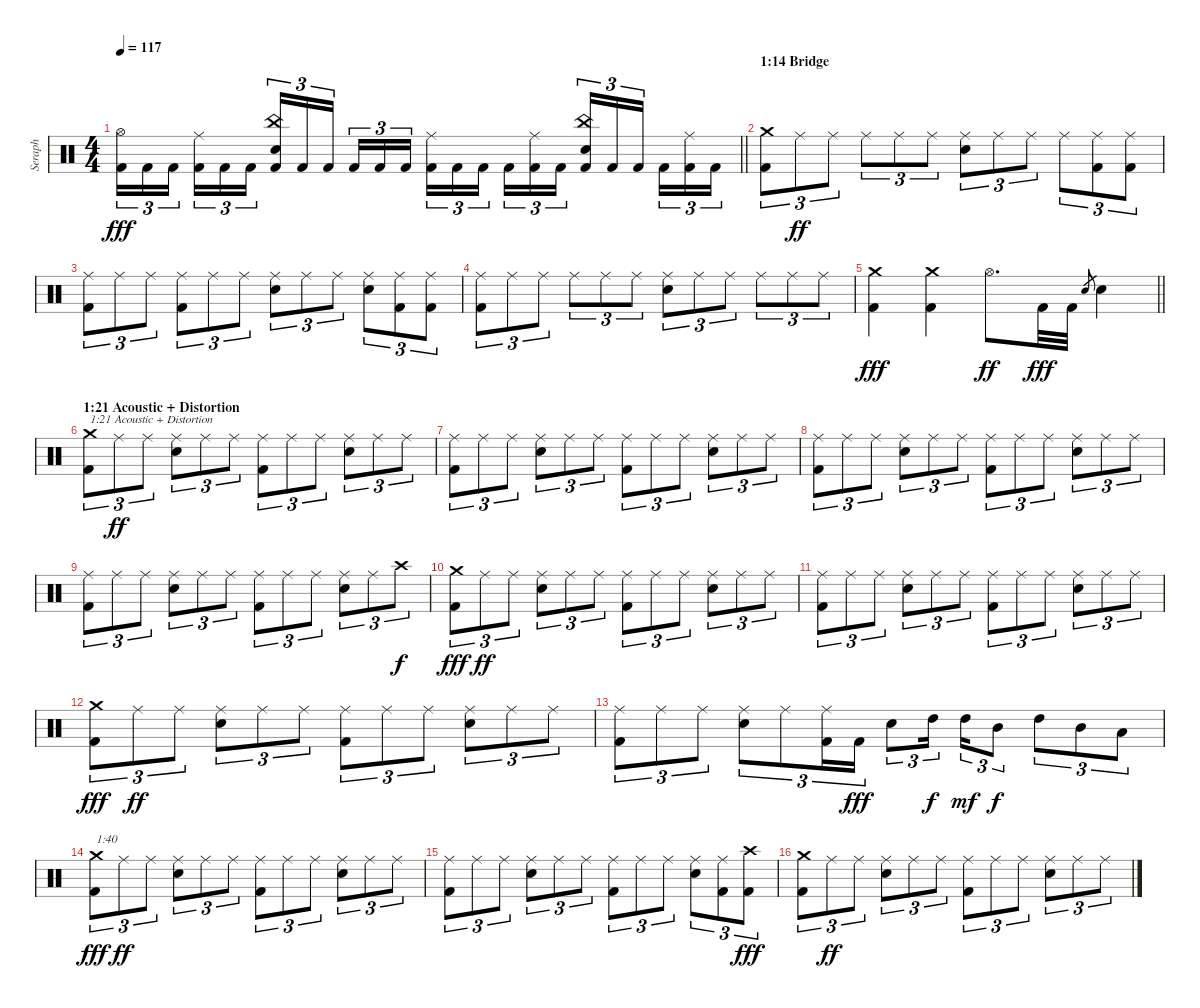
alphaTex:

\track ("Seraph" "Seraph") {instrument percussion}
\staff {score}
\articulation defaults
\ts (4 4)
\tempo 117
\clef neutral
\barLineRight lightlight
\ks c
("Hi-Hat (open)" "Kick (hit) 2").16{tu (3 2) dy fff} "Kick (hit) 2".16{tu (3 2)} "Kick (hit) 2".16{tu (3 2) beam splitsecondary} ("Ride (middle)" "Kick (hit) 2").16{tu (3 2)} "Kick (hit) 2".16{tu (3 2)} "Kick (hit) 2".16{tu (3 2)} ("China (hit)" "Electric Snare (hit)" "Kick (hit) 2").16{tu (3 2)} "Kick (hit) 2".16{tu (3 2)} "Kick (hit) 2".16{tu (3 2) beam splitsecondary} "Kick (hit) 2".16{tu (3 2)} "Kick (hit) 2".16{tu (3 2)} "Kick (hit) 2".16{tu (3 2)} ("Ride (middle)" "Kick (hit) 2").16{tu (3 2)} "Kick (hit) 2".16{tu (3 2)} "Kick (hit) 2".16{tu (3 2) beam splitsecondary} "Kick (hit) 2".16{tu (3 2)} ("Ride (middle)" "Kick (hit) 2").16{tu (3 2)} "Kick (hit) 2".16{tu (3 2)} ("China (hit)" "Electric Snare (hit)" "Kick (hit) 2").16{tu (3 2)} "Kick (hit) 2".16{tu (3 2)} "Kick (hit) 2".16{tu (3 2) beam splitsecondary} "Kick (hit) 2".16{tu (3 2)} ("Ride (middle)" "Kick (hit) 2").16{tu (3 2)} "Kick (hit) 2".16{tu (3 2)} |
\section ("" "1:14 Bridge")
("Kick (hit) 2" "Crash medium (hit)").8{tu (3 2)} "Ride (middle)".8{tu (3 2) dy ff} "Ride (middle)".8{tu (3 2)} "Ride (middle)".8{tu (3 2)} "Ride (middle)".8{tu (3 2)} "Ride (middle)".8{tu (3 2)} ("Electric Snare (hit)" "Ride (middle)").8{tu (3 2)} "Ride (middle)".8{tu (3 2)} "Ride (middle)".8{tu (3 2)} "Ride (middle)".8{tu (3 2)} ("Kick (hit) 2" "Ride (middle)").8{tu (3 2)} ("Kick (hit) 2" "Ride (middle)").8{tu (3 2)} |
("Kick (hit) 2" "Ride (middle)").8{tu (3 2)} "Ride (middle)".8{tu (3 2)} "Ride (middle)".8{tu (3 2)} ("Kick (hit) 2" "Ride (middle)").8{tu (3 2)} "Ride (middle)".8{tu (3 2)} "Ride (middle)".8{tu (3 2)} ("Electric Snare (hit)" "Ride (middle)").8{tu (3 2)} "Ride (middle)".8{tu (3 2)} "Ride (middle)".8{tu (3 2)} ("Electric Snare (hit)" "Ride (middle)").8{tu (3 2)} ("Kick (hit) 2" "Ride (middle)").8{tu (3 2)} ("Kick (hit) 2" "Ride (middle)").8{tu (3 2)} |
("Kick (hit) 2" "Ride (middle)").8{tu (3 2)} "Ride (middle)".8{tu (3 2)} "Ride (middle)".8{tu (3 2)} "Ride (middle)".8{tu (3 2)} "Ride (middle)".8{tu (3 2)} "Ride (middle)".8{tu (3 2)} ("Electric Snare (hit)" "Ride (middle)").8{tu (3 2)} "Ride (middle)".8{tu (3 2)} "Ride (middle)".8{tu (3 2)} "Ride (middle)".8{tu (3 2)} "Ride (middle)".8{tu (3 2)} "Ride (middle)".8{tu (3 2)} |
\barLineRight lightlight
("Kick (hit) 2" "Crash medium (hit)").4{dy fff} ("Kick (hit) 2" "Crash medium (hit)").4 "Hi-Hat (open)".8{d dy ff} "Kick (hit) 2".32{dy fff} "Kick (hit) 2".32 "Electric Snare (hit)".8{gr} "Electric Snare (hit)".4 |
\section ("" "1:21 Acoustic + Distortion")
("Kick (hit) 2" "Crash medium (hit)").8{tu (3 2) txt "1:21 Acoustic + Distortion"} "Ride (middle)".8{tu (3 2) dy ff} "Ride (middle)".8{tu (3 2)} ("Electric Snare (hit)" "Ride (middle)").8{tu (3 2)} "Ride (middle)".8{tu (3 2)} "Ride (middle)".8{tu (3 2)} ("Kick (hit) 2" "Ride (middle)").8{tu (3 2)} "Ride (middle)".8{tu (3 2)} "Ride (middle)".8{tu (3 2)} ("Electric Snare (hit)" "Ride (middle)").8{tu (3 2)} "Ride (middle)".8{tu (3 2)} "Ride (middle)".8{tu (3 2)} |
("Kick (hit) 2" "Ride (middle)").8{tu (3 2)} "Ride (middle)".8{tu (3 2)} "Ride (middle)".8{tu (3 2)} ("Electric Snare (hit)" "Ride (middle)").8{tu (3 2)} "Ride (middle)".8{tu (3 2)} "Ride (middle)".8{tu (3 2)} ("Kick (hit) 2" "Ride (middle)").8{tu (3 2)} "Ride (middle)".8{tu (3 2)} "Ride (middle)".8{tu (3 2)} ("Electric Snare (hit)" "Ride (middle)").8{tu (3 2)} "Ride (middle)".8{tu (3 2)} "Ride (middle)".8{tu (3 2)} |
("Kick (hit) 2" "Ride (middle)").8{tu (3 2)} "Ride (middle)".8{tu (3 2)} "Ride (middle)".8{tu (3 2)} ("Electric Snare (hit)" "Ride (middle)").8{tu (3 2)} "Ride (middle)".8{tu (3 2)} "Ride (middle)".8{tu (3 2)} ("Kick (hit) 2" "Ride (middle)").8{tu (3 2)} "Ride (middle)".8{tu (3 2)} "Ride (middle)".8{tu (3 2)} ("Electric Snare (hit)" "Ride (middle)").8{tu (3 2)} "Ride (middle)".8{tu (3 2)} "Ride (middle)".8{tu (3 2)} |
("Kick (hit) 2" "Ride (middle)").8{tu (3 2)} "Ride (middle)".8{tu (3 2)} "Ride (middle)".8{tu (3 2)} ("Electric Snare (hit)" "Ride (middle)").8{tu (3 2)} "Ride (middle)".8{tu (3 2)} "Ride (middle)".8{tu (3 2)} ("Kick (hit) 2" "Ride (middle)").8{tu (3 2)} "Ride (middle)".8{tu (3 2)} "Ride (middle)".8{tu (3 2)} ("Electric Snare (hit)" "Ride (middle)").8{tu (3 2)} "Ride (middle)".8{tu (3 2)} "Crash high (hit)".8{tu (3 2) dy f} |
("Kick (hit) 2" "Crash medium (hit)").8{tu (3 2) dy fff} "Ride (middle)".8{tu (3 2) dy ff} "Ride (middle)".8{tu (3 2)} ("Electric Snare (hit)" "Ride (middle)").8{tu (3 2)} "Ride (middle)".8{tu (3 2)} "Ride (middle)".8{tu (3 2)} ("Kick (hit) 2" "Ride (middle)").8{tu (3 2)} "Ride (middle)".8{tu (3 2)} "Ride (middle)".8{tu (3 2)} ("Electric Snare (hit)" "Ride (middle)").8{tu (3 2)} "Ride (middle)".8{tu (3 2)} "Ride (middle)".8{tu (3 2)} |
("Kick (hit) 2" "Ride (middle)").8{tu (3 2)} "Ride (middle)".8{tu (3 2)} "Ride (middle)".8{tu (3 2)} ("Electric Snare (hit)" "Ride (middle)").8{tu (3 2)} "Ride (middle)".8{tu (3 2)} "Ride (middle)".8{tu (3 2)} ("Kick (hit) 2" "Ride (middle)").8{tu (3 2)} "Ride (middle)".8{tu (3 2)} "Ride (middle)".8{tu (3 2)} ("Electric Snare (hit)" "Ride (middle)").8{tu (3 2)} "Ride (middle)".8{tu (3 2)} "Ride (middle)".8{tu (3 2)} |
("Kick (hit) 2" "Crash medium (hit)").8{tu (3 2) dy fff} "Ride (middle)".8{tu (3 2) dy ff} "Ride (middle)".8{tu (3 2)} ("Electric Snare (hit)" "Ride (middle)").8{tu (3 2)} "Ride (middle)".8{tu (3 2)} "Ride (middle)".8{tu (3 2)} ("Kick (hit) 2" "Ride (middle)").8{tu (3 2)} "Ride (middle)".8{tu (3 2)} "Ride (middle)".8{tu (3 2)} ("Electric Snare (hit)" "Ride (middle)").8{tu (3 2)} "Ride (middle)".8{tu (3 2)} "Ride (middle)".8{tu (3 2)} |
("Kick (hit) 2" "Ride (middle)").8{tu (3 2)} "Ride (middle)".8{tu (3 2)} "Ride (middle)".8{tu (3 2)} ("Electric Snare (hit)" "Ride (middle)").8{tu (3 2)} "Ride (middle)".8{tu (3 2)} ("Kick (hit) 2" "Ride (middle)").16{tu (3 2)} "Kick (hit) 2".16{tu (3 2) dy fff} "Electric Snare (hit)".8{tu (3 2)} "High Tom (hit)".16{tu (3 2) dy f beam splitsecondary} "High Tom (hit)".16{tu (3 2) dy mf} "Mid Tom (hit)".8{tu (3 2) dy f} "High Tom (hit)".8{tu (3 2)} "Mid Tom (hit)".8{tu (3 2)} "Low Tom (hit)".8{tu (3 2)} |
("Kick (hit) 2" "Crash medium (hit)").8{tu (3 2) txt "1:40" dy fff} "Ride (middle)".8{tu (3 2) dy ff} "Ride (middle)".8{tu (3 2)} ("Electric Snare (hit)" "Ride (middle)").8{tu (3 2)} "Ride (middle)".8{tu (3 2)} "Ride (middle)".8{tu (3 2)} ("Kick (hit) 2" "Ride (middle)").8{tu (3 2)} "Ride (middle)".8{tu (3 2)} "Ride (middle)".8{tu (3 2)} ("Electric Snare (hit)" "Ride (middle)").8{tu (3 2)} "Ride (middle)".8{tu (3 2)} "Ride (middle)".8{tu (3 2)} |
("Kick (hit) 2" "Ride (middle)").8{tu (3 2)} "Ride (middle)".8{tu (3 2)} "Ride (middle)".8{tu (3 2)} ("Electric Snare (hit)" "Ride (middle)").8{tu (3 2)} "Ride (middle)".8{tu (3 2)} "Ride (middle)".8{tu (3 2)} ("Kick (hit) 2" "Ride (middle)").8{tu (3 2)} "Ride (middle)".8{tu (3 2)} "Ride (middle)".8{tu (3 2)} ("Electric Snare (hit)" "Ride (middle)").8{tu (3 2)} ("Kick (hit) 2" "Ride (middle)").8{tu (3 2)} ("Kick (hit) 2" "Crash high (hit)").8{tu (3 2) dy fff} |
("Kick (hit) 2" "Crash medium (hit)").8{tu (3 2)} "Ride (middle)".8{tu (3 2) dy ff} "Ride (middle)".8{tu (3 2)} ("Electric Snare (hit)" "Ride (middle)").8{tu (3 2)} "Ride (middle)".8{tu (3 2)} "Ride (middle)".8{tu (3 2)} ("Kick (hit) 2" "Ride (middle)").8{tu (3 2)} "Ride (middle)".8{tu (3 2)} "Ride (middle)".8{tu (3 2)} ("Electric Snare (hit)" "Ride (middle)").8{tu (3 2)} "Ride (middle)".8{tu (3 2)} "Ride (middle)".8{tu (3 2)}
